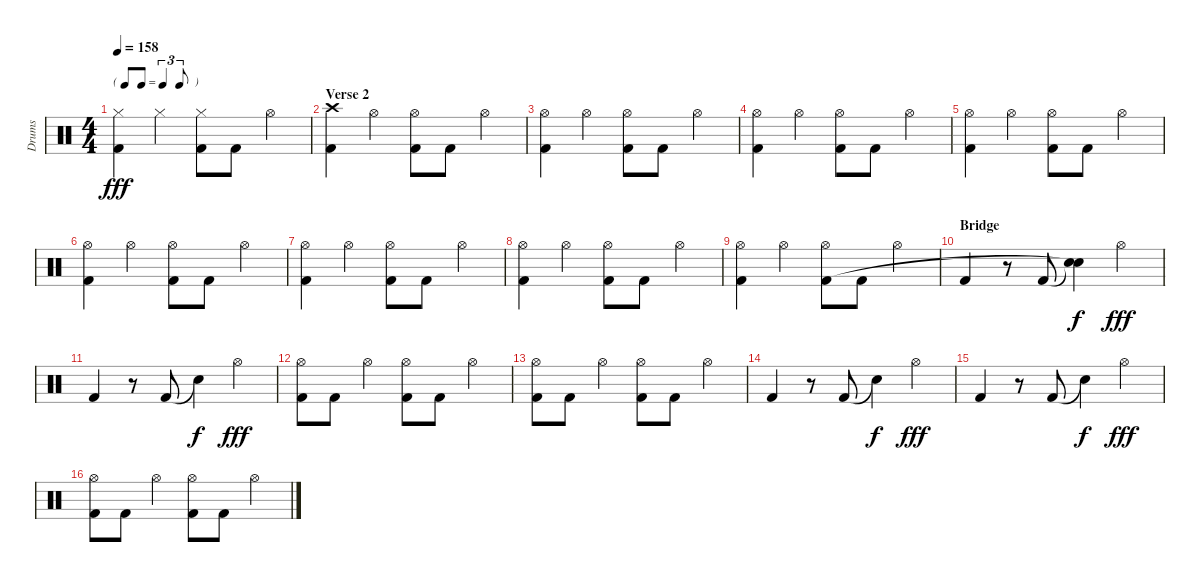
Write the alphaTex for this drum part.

\track ("Drums" "Drums") {instrument percussion}
\staff {score}
\articulation defaults
\ts (4 4)
\tf triplet8th
\tempo 158
\clef neutral
\ks c
("Hi-Hat (closed)" "Kick (hit) 2").4{dy fff} "Hi-Hat (closed)".4 ("Hi-Hat (closed)" "Kick (hit) 2").8 "Kick (hit) 2".8 "Hi-Hat (open)".4 |
\section ("" "Verse 2")
("Crash high (hit)" "Kick (hit) 2").4 "Hi-Hat (open)".4 ("Hi-Hat (open)" "Kick (hit) 2").8 "Kick (hit) 2".8 "Hi-Hat (open)".4 |
("Hi-Hat (open)" "Kick (hit) 2").4 "Hi-Hat (open)".4 ("Hi-Hat (open)" "Kick (hit) 2").8 "Kick (hit) 2".8 "Hi-Hat (open)".4 |
("Hi-Hat (open)" "Kick (hit) 2").4 "Hi-Hat (open)".4 ("Hi-Hat (open)" "Kick (hit) 2").8 "Kick (hit) 2".8 "Hi-Hat (open)".4 |
("Hi-Hat (open)" "Kick (hit) 2").4 "Hi-Hat (open)".4 ("Hi-Hat (open)" "Kick (hit) 2").8 "Kick (hit) 2".8 "Hi-Hat (open)".4 |
("Hi-Hat (open)" "Kick (hit) 2").4 "Hi-Hat (open)".4 ("Hi-Hat (open)" "Kick (hit) 2").8 "Kick (hit) 2".8 "Hi-Hat (open)".4 |
("Hi-Hat (open)" "Kick (hit) 2").4 "Hi-Hat (open)".4 ("Hi-Hat (open)" "Kick (hit) 2").8 "Kick (hit) 2".8 "Hi-Hat (open)".4 |
("Hi-Hat (open)" "Kick (hit) 2").4 "Hi-Hat (open)".4 ("Hi-Hat (open)" "Kick (hit) 2").8 "Kick (hit) 2".8 "Hi-Hat (open)".4 |
("Hi-Hat (open)" "Kick (hit) 2").4 "Hi-Hat (open)".4 ("Hi-Hat (open)" "Kick (hit) 2").8 "Kick (hit) 2".8 "Hi-Hat (open)".4 |
\section ("" "Bridge")
"Kick (hit) 2".4 r.8 "Kick (hit) 2".8 ("Snare (hit)"{t} "Snare (hit)"{t}).4{dy f} "Hi-Hat (open)".4{dy fff} |
"Kick (hit) 2".4 r.8 "Kick (hit) 2".8 "Snare (hit)"{t}.4{dy f} "Hi-Hat (open)".4{dy fff} |
("Hi-Hat (open)" "Kick (hit) 2").8 "Kick (hit) 2".8 "Hi-Hat (open)".4 ("Hi-Hat (open)" "Kick (hit) 2").8 "Kick (hit) 2".8 "Hi-Hat (open)".4 |
("Hi-Hat (open)" "Kick (hit) 2").8 "Kick (hit) 2".8 "Hi-Hat (open)".4 ("Hi-Hat (open)" "Kick (hit) 2").8 "Kick (hit) 2".8 "Hi-Hat (open)".4 |
"Kick (hit) 2".4 r.8 "Kick (hit) 2".8 "Snare (hit)"{t}.4{dy f} "Hi-Hat (open)".4{dy fff} |
"Kick (hit) 2".4 r.8 "Kick (hit) 2".8 "Snare (hit)"{t}.4{dy f} "Hi-Hat (open)".4{dy fff} |
("Hi-Hat (open)" "Kick (hit) 2").8 "Kick (hit) 2".8 "Hi-Hat (open)".4 ("Hi-Hat (open)" "Kick (hit) 2").8 "Kick (hit) 2".8 "Hi-Hat (open)".4
